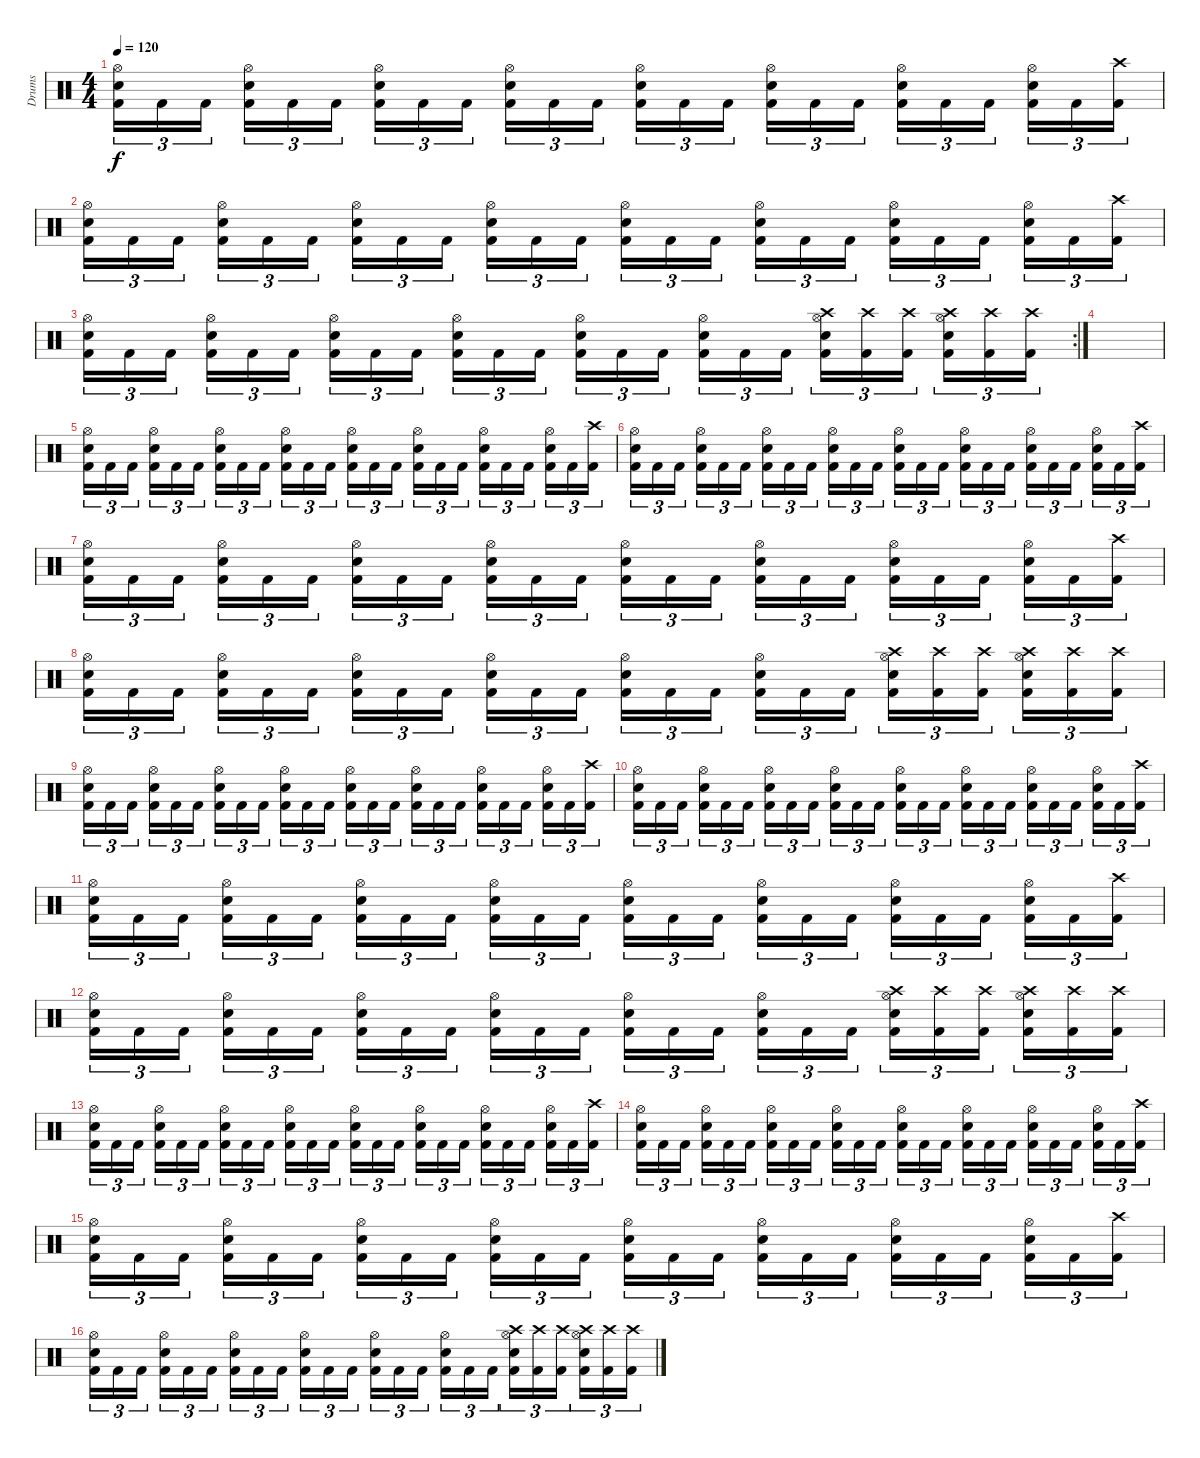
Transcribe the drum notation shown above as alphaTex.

\track ("Drums" "Drums") {instrument percussion}
\staff {score}
\articulation defaults
\ts (4 4)
\tempo 120
\clef neutral
\ks c
("Hi-Hat (open)" "Snare (hit) 2" "Kick (hit) 2").16{tu (3 2) dy f} "Kick (hit) 2".16{tu (3 2)} "Kick (hit) 2".16{tu (3 2)} ("Hi-Hat (open)" "Electric Snare (hit)" "Kick (hit) 2").16{tu (3 2)} "Kick (hit) 2".16{tu (3 2)} "Kick (hit) 2".16{tu (3 2)} ("Hi-Hat (open)" "Snare (hit) 2" "Kick (hit) 2").16{tu (3 2)} "Kick (hit) 2".16{tu (3 2)} "Kick (hit) 2".16{tu (3 2)} ("Hi-Hat (open)" "Electric Snare (hit)" "Kick (hit) 2").16{tu (3 2)} "Kick (hit) 2".16{tu (3 2)} "Kick (hit) 2".16{tu (3 2)} ("Hi-Hat (open)" "Snare (hit) 2" "Kick (hit) 2").16{tu (3 2)} "Kick (hit) 2".16{tu (3 2)} "Kick (hit) 2".16{tu (3 2)} ("Hi-Hat (open)" "Electric Snare (hit)" "Kick (hit) 2").16{tu (3 2)} "Kick (hit) 2".16{tu (3 2)} "Kick (hit) 2".16{tu (3 2)} ("Hi-Hat (open)" "Snare (hit) 2" "Kick (hit) 2").16{tu (3 2)} "Kick (hit) 2".16{tu (3 2)} "Kick (hit) 2".16{tu (3 2)} ("Hi-Hat (open)" "Electric Snare (hit)" "Kick (hit) 2").16{tu (3 2)} "Kick (hit) 2".16{tu (3 2)} ("Crash high (hit)" "Kick (hit) 2").16{tu (3 2)} |
("Hi-Hat (open)" "Snare (hit) 2" "Kick (hit) 2").16{tu (3 2)} "Kick (hit) 2".16{tu (3 2)} "Kick (hit) 2".16{tu (3 2)} ("Hi-Hat (open)" "Electric Snare (hit)" "Kick (hit) 2").16{tu (3 2)} "Kick (hit) 2".16{tu (3 2)} "Kick (hit) 2".16{tu (3 2)} ("Hi-Hat (open)" "Snare (hit) 2" "Kick (hit) 2").16{tu (3 2)} "Kick (hit) 2".16{tu (3 2)} "Kick (hit) 2".16{tu (3 2)} ("Hi-Hat (open)" "Electric Snare (hit)" "Kick (hit) 2").16{tu (3 2)} "Kick (hit) 2".16{tu (3 2)} "Kick (hit) 2".16{tu (3 2)} ("Hi-Hat (open)" "Snare (hit) 2" "Kick (hit) 2").16{tu (3 2)} "Kick (hit) 2".16{tu (3 2)} "Kick (hit) 2".16{tu (3 2)} ("Hi-Hat (open)" "Electric Snare (hit)" "Kick (hit) 2").16{tu (3 2)} "Kick (hit) 2".16{tu (3 2)} "Kick (hit) 2".16{tu (3 2)} ("Hi-Hat (open)" "Snare (hit) 2" "Kick (hit) 2").16{tu (3 2)} "Kick (hit) 2".16{tu (3 2)} "Kick (hit) 2".16{tu (3 2)} ("Hi-Hat (open)" "Electric Snare (hit)" "Kick (hit) 2").16{tu (3 2)} "Kick (hit) 2".16{tu (3 2)} ("Crash high (hit)" "Kick (hit) 2").16{tu (3 2)} |
\rc 2
("Hi-Hat (open)" "Snare (hit) 2" "Kick (hit) 2").16{tu (3 2)} "Kick (hit) 2".16{tu (3 2)} "Kick (hit) 2".16{tu (3 2)} ("Hi-Hat (open)" "Electric Snare (hit)" "Kick (hit) 2").16{tu (3 2)} "Kick (hit) 2".16{tu (3 2)} "Kick (hit) 2".16{tu (3 2)} ("Hi-Hat (open)" "Snare (hit) 2" "Kick (hit) 2").16{tu (3 2)} "Kick (hit) 2".16{tu (3 2)} "Kick (hit) 2".16{tu (3 2)} ("Hi-Hat (open)" "Electric Snare (hit)" "Kick (hit) 2").16{tu (3 2)} "Kick (hit) 2".16{tu (3 2)} "Kick (hit) 2".16{tu (3 2)} ("Hi-Hat (open)" "Snare (hit) 2" "Kick (hit) 2").16{tu (3 2)} "Kick (hit) 2".16{tu (3 2)} "Kick (hit) 2".16{tu (3 2)} ("Hi-Hat (open)" "Electric Snare (hit)" "Kick (hit) 2").16{tu (3 2)} "Kick (hit) 2".16{tu (3 2)} "Kick (hit) 2".16{tu (3 2)} ("Hi-Hat (open)" "Crash high (hit)" "Snare (hit) 2" "Kick (hit) 2").16{tu (3 2)} ("Crash high (hit)" "Kick (hit) 2").16{tu (3 2)} ("Crash high (hit)" "Kick (hit) 2").16{tu (3 2)} ("Hi-Hat (open)" "Crash high (hit)" "Electric Snare (hit)" "Kick (hit) 2").16{tu (3 2)} ("Crash high (hit)" "Kick (hit) 2").16{tu (3 2)} ("Crash high (hit)" "Kick (hit) 2").16{tu (3 2)} |
|
("Hi-Hat (open)" "Snare (hit) 2" "Kick (hit) 2").16{tu (3 2)} "Kick (hit) 2".16{tu (3 2)} "Kick (hit) 2".16{tu (3 2)} ("Hi-Hat (open)" "Electric Snare (hit)" "Kick (hit) 2").16{tu (3 2)} "Kick (hit) 2".16{tu (3 2)} "Kick (hit) 2".16{tu (3 2)} ("Hi-Hat (open)" "Snare (hit) 2" "Kick (hit) 2").16{tu (3 2)} "Kick (hit) 2".16{tu (3 2)} "Kick (hit) 2".16{tu (3 2)} ("Hi-Hat (open)" "Electric Snare (hit)" "Kick (hit) 2").16{tu (3 2)} "Kick (hit) 2".16{tu (3 2)} "Kick (hit) 2".16{tu (3 2)} ("Hi-Hat (open)" "Snare (hit) 2" "Kick (hit) 2").16{tu (3 2)} "Kick (hit) 2".16{tu (3 2)} "Kick (hit) 2".16{tu (3 2)} ("Hi-Hat (open)" "Electric Snare (hit)" "Kick (hit) 2").16{tu (3 2)} "Kick (hit) 2".16{tu (3 2)} "Kick (hit) 2".16{tu (3 2)} ("Hi-Hat (open)" "Snare (hit) 2" "Kick (hit) 2").16{tu (3 2)} "Kick (hit) 2".16{tu (3 2)} "Kick (hit) 2".16{tu (3 2)} ("Hi-Hat (open)" "Electric Snare (hit)" "Kick (hit) 2").16{tu (3 2)} "Kick (hit) 2".16{tu (3 2)} ("Crash high (hit)" "Kick (hit) 2").16{tu (3 2)} |
("Hi-Hat (open)" "Snare (hit) 2" "Kick (hit) 2").16{tu (3 2)} "Kick (hit) 2".16{tu (3 2)} "Kick (hit) 2".16{tu (3 2)} ("Hi-Hat (open)" "Electric Snare (hit)" "Kick (hit) 2").16{tu (3 2)} "Kick (hit) 2".16{tu (3 2)} "Kick (hit) 2".16{tu (3 2)} ("Hi-Hat (open)" "Snare (hit) 2" "Kick (hit) 2").16{tu (3 2)} "Kick (hit) 2".16{tu (3 2)} "Kick (hit) 2".16{tu (3 2)} ("Hi-Hat (open)" "Electric Snare (hit)" "Kick (hit) 2").16{tu (3 2)} "Kick (hit) 2".16{tu (3 2)} "Kick (hit) 2".16{tu (3 2)} ("Hi-Hat (open)" "Snare (hit) 2" "Kick (hit) 2").16{tu (3 2)} "Kick (hit) 2".16{tu (3 2)} "Kick (hit) 2".16{tu (3 2)} ("Hi-Hat (open)" "Electric Snare (hit)" "Kick (hit) 2").16{tu (3 2)} "Kick (hit) 2".16{tu (3 2)} "Kick (hit) 2".16{tu (3 2)} ("Hi-Hat (open)" "Snare (hit) 2" "Kick (hit) 2").16{tu (3 2)} "Kick (hit) 2".16{tu (3 2)} "Kick (hit) 2".16{tu (3 2)} ("Hi-Hat (open)" "Electric Snare (hit)" "Kick (hit) 2").16{tu (3 2)} "Kick (hit) 2".16{tu (3 2)} ("Crash high (hit)" "Kick (hit) 2").16{tu (3 2)} |
("Hi-Hat (open)" "Snare (hit) 2" "Kick (hit) 2").16{tu (3 2)} "Kick (hit) 2".16{tu (3 2)} "Kick (hit) 2".16{tu (3 2)} ("Hi-Hat (open)" "Electric Snare (hit)" "Kick (hit) 2").16{tu (3 2)} "Kick (hit) 2".16{tu (3 2)} "Kick (hit) 2".16{tu (3 2)} ("Hi-Hat (open)" "Snare (hit) 2" "Kick (hit) 2").16{tu (3 2)} "Kick (hit) 2".16{tu (3 2)} "Kick (hit) 2".16{tu (3 2)} ("Hi-Hat (open)" "Electric Snare (hit)" "Kick (hit) 2").16{tu (3 2)} "Kick (hit) 2".16{tu (3 2)} "Kick (hit) 2".16{tu (3 2)} ("Hi-Hat (open)" "Snare (hit) 2" "Kick (hit) 2").16{tu (3 2)} "Kick (hit) 2".16{tu (3 2)} "Kick (hit) 2".16{tu (3 2)} ("Hi-Hat (open)" "Electric Snare (hit)" "Kick (hit) 2").16{tu (3 2)} "Kick (hit) 2".16{tu (3 2)} "Kick (hit) 2".16{tu (3 2)} ("Hi-Hat (open)" "Snare (hit) 2" "Kick (hit) 2").16{tu (3 2)} "Kick (hit) 2".16{tu (3 2)} "Kick (hit) 2".16{tu (3 2)} ("Hi-Hat (open)" "Electric Snare (hit)" "Kick (hit) 2").16{tu (3 2)} "Kick (hit) 2".16{tu (3 2)} ("Crash high (hit)" "Kick (hit) 2").16{tu (3 2)} |
("Hi-Hat (open)" "Snare (hit) 2" "Kick (hit) 2").16{tu (3 2)} "Kick (hit) 2".16{tu (3 2)} "Kick (hit) 2".16{tu (3 2)} ("Hi-Hat (open)" "Electric Snare (hit)" "Kick (hit) 2").16{tu (3 2)} "Kick (hit) 2".16{tu (3 2)} "Kick (hit) 2".16{tu (3 2)} ("Hi-Hat (open)" "Snare (hit) 2" "Kick (hit) 2").16{tu (3 2)} "Kick (hit) 2".16{tu (3 2)} "Kick (hit) 2".16{tu (3 2)} ("Hi-Hat (open)" "Electric Snare (hit)" "Kick (hit) 2").16{tu (3 2)} "Kick (hit) 2".16{tu (3 2)} "Kick (hit) 2".16{tu (3 2)} ("Hi-Hat (open)" "Snare (hit) 2" "Kick (hit) 2").16{tu (3 2)} "Kick (hit) 2".16{tu (3 2)} "Kick (hit) 2".16{tu (3 2)} ("Hi-Hat (open)" "Electric Snare (hit)" "Kick (hit) 2").16{tu (3 2)} "Kick (hit) 2".16{tu (3 2)} "Kick (hit) 2".16{tu (3 2)} ("Hi-Hat (open)" "Crash high (hit)" "Snare (hit) 2" "Kick (hit) 2").16{tu (3 2)} ("Crash high (hit)" "Kick (hit) 2").16{tu (3 2)} ("Crash high (hit)" "Kick (hit) 2").16{tu (3 2)} ("Hi-Hat (open)" "Crash high (hit)" "Electric Snare (hit)" "Kick (hit) 2").16{tu (3 2)} ("Crash high (hit)" "Kick (hit) 2").16{tu (3 2)} ("Crash high (hit)" "Kick (hit) 2").16{tu (3 2)} |
("Hi-Hat (open)" "Snare (hit) 2" "Kick (hit) 2").16{tu (3 2)} "Kick (hit) 2".16{tu (3 2)} "Kick (hit) 2".16{tu (3 2)} ("Hi-Hat (open)" "Electric Snare (hit)" "Kick (hit) 2").16{tu (3 2)} "Kick (hit) 2".16{tu (3 2)} "Kick (hit) 2".16{tu (3 2)} ("Hi-Hat (open)" "Snare (hit) 2" "Kick (hit) 2").16{tu (3 2)} "Kick (hit) 2".16{tu (3 2)} "Kick (hit) 2".16{tu (3 2)} ("Hi-Hat (open)" "Electric Snare (hit)" "Kick (hit) 2").16{tu (3 2)} "Kick (hit) 2".16{tu (3 2)} "Kick (hit) 2".16{tu (3 2)} ("Hi-Hat (open)" "Snare (hit) 2" "Kick (hit) 2").16{tu (3 2)} "Kick (hit) 2".16{tu (3 2)} "Kick (hit) 2".16{tu (3 2)} ("Hi-Hat (open)" "Electric Snare (hit)" "Kick (hit) 2").16{tu (3 2)} "Kick (hit) 2".16{tu (3 2)} "Kick (hit) 2".16{tu (3 2)} ("Hi-Hat (open)" "Snare (hit) 2" "Kick (hit) 2").16{tu (3 2)} "Kick (hit) 2".16{tu (3 2)} "Kick (hit) 2".16{tu (3 2)} ("Hi-Hat (open)" "Electric Snare (hit)" "Kick (hit) 2").16{tu (3 2)} "Kick (hit) 2".16{tu (3 2)} ("Crash high (hit)" "Kick (hit) 2").16{tu (3 2)} |
("Hi-Hat (open)" "Snare (hit) 2" "Kick (hit) 2").16{tu (3 2)} "Kick (hit) 2".16{tu (3 2)} "Kick (hit) 2".16{tu (3 2)} ("Hi-Hat (open)" "Electric Snare (hit)" "Kick (hit) 2").16{tu (3 2)} "Kick (hit) 2".16{tu (3 2)} "Kick (hit) 2".16{tu (3 2)} ("Hi-Hat (open)" "Snare (hit) 2" "Kick (hit) 2").16{tu (3 2)} "Kick (hit) 2".16{tu (3 2)} "Kick (hit) 2".16{tu (3 2)} ("Hi-Hat (open)" "Electric Snare (hit)" "Kick (hit) 2").16{tu (3 2)} "Kick (hit) 2".16{tu (3 2)} "Kick (hit) 2".16{tu (3 2)} ("Hi-Hat (open)" "Snare (hit) 2" "Kick (hit) 2").16{tu (3 2)} "Kick (hit) 2".16{tu (3 2)} "Kick (hit) 2".16{tu (3 2)} ("Hi-Hat (open)" "Electric Snare (hit)" "Kick (hit) 2").16{tu (3 2)} "Kick (hit) 2".16{tu (3 2)} "Kick (hit) 2".16{tu (3 2)} ("Hi-Hat (open)" "Snare (hit) 2" "Kick (hit) 2").16{tu (3 2)} "Kick (hit) 2".16{tu (3 2)} "Kick (hit) 2".16{tu (3 2)} ("Hi-Hat (open)" "Electric Snare (hit)" "Kick (hit) 2").16{tu (3 2)} "Kick (hit) 2".16{tu (3 2)} ("Crash high (hit)" "Kick (hit) 2").16{tu (3 2)} |
("Hi-Hat (open)" "Snare (hit) 2" "Kick (hit) 2").16{tu (3 2)} "Kick (hit) 2".16{tu (3 2)} "Kick (hit) 2".16{tu (3 2)} ("Hi-Hat (open)" "Electric Snare (hit)" "Kick (hit) 2").16{tu (3 2)} "Kick (hit) 2".16{tu (3 2)} "Kick (hit) 2".16{tu (3 2)} ("Hi-Hat (open)" "Snare (hit) 2" "Kick (hit) 2").16{tu (3 2)} "Kick (hit) 2".16{tu (3 2)} "Kick (hit) 2".16{tu (3 2)} ("Hi-Hat (open)" "Electric Snare (hit)" "Kick (hit) 2").16{tu (3 2)} "Kick (hit) 2".16{tu (3 2)} "Kick (hit) 2".16{tu (3 2)} ("Hi-Hat (open)" "Snare (hit) 2" "Kick (hit) 2").16{tu (3 2)} "Kick (hit) 2".16{tu (3 2)} "Kick (hit) 2".16{tu (3 2)} ("Hi-Hat (open)" "Electric Snare (hit)" "Kick (hit) 2").16{tu (3 2)} "Kick (hit) 2".16{tu (3 2)} "Kick (hit) 2".16{tu (3 2)} ("Hi-Hat (open)" "Snare (hit) 2" "Kick (hit) 2").16{tu (3 2)} "Kick (hit) 2".16{tu (3 2)} "Kick (hit) 2".16{tu (3 2)} ("Hi-Hat (open)" "Electric Snare (hit)" "Kick (hit) 2").16{tu (3 2)} "Kick (hit) 2".16{tu (3 2)} ("Crash high (hit)" "Kick (hit) 2").16{tu (3 2)} |
("Hi-Hat (open)" "Snare (hit) 2" "Kick (hit) 2").16{tu (3 2)} "Kick (hit) 2".16{tu (3 2)} "Kick (hit) 2".16{tu (3 2)} ("Hi-Hat (open)" "Electric Snare (hit)" "Kick (hit) 2").16{tu (3 2)} "Kick (hit) 2".16{tu (3 2)} "Kick (hit) 2".16{tu (3 2)} ("Hi-Hat (open)" "Snare (hit) 2" "Kick (hit) 2").16{tu (3 2)} "Kick (hit) 2".16{tu (3 2)} "Kick (hit) 2".16{tu (3 2)} ("Hi-Hat (open)" "Electric Snare (hit)" "Kick (hit) 2").16{tu (3 2)} "Kick (hit) 2".16{tu (3 2)} "Kick (hit) 2".16{tu (3 2)} ("Hi-Hat (open)" "Snare (hit) 2" "Kick (hit) 2").16{tu (3 2)} "Kick (hit) 2".16{tu (3 2)} "Kick (hit) 2".16{tu (3 2)} ("Hi-Hat (open)" "Electric Snare (hit)" "Kick (hit) 2").16{tu (3 2)} "Kick (hit) 2".16{tu (3 2)} "Kick (hit) 2".16{tu (3 2)} ("Hi-Hat (open)" "Crash high (hit)" "Snare (hit) 2" "Kick (hit) 2").16{tu (3 2)} ("Crash high (hit)" "Kick (hit) 2").16{tu (3 2)} ("Crash high (hit)" "Kick (hit) 2").16{tu (3 2)} ("Hi-Hat (open)" "Crash high (hit)" "Electric Snare (hit)" "Kick (hit) 2").16{tu (3 2)} ("Crash high (hit)" "Kick (hit) 2").16{tu (3 2)} ("Crash high (hit)" "Kick (hit) 2").16{tu (3 2)} |
("Hi-Hat (open)" "Snare (hit) 2" "Kick (hit) 2").16{tu (3 2)} "Kick (hit) 2".16{tu (3 2)} "Kick (hit) 2".16{tu (3 2)} ("Hi-Hat (open)" "Electric Snare (hit)" "Kick (hit) 2").16{tu (3 2)} "Kick (hit) 2".16{tu (3 2)} "Kick (hit) 2".16{tu (3 2)} ("Hi-Hat (open)" "Snare (hit) 2" "Kick (hit) 2").16{tu (3 2)} "Kick (hit) 2".16{tu (3 2)} "Kick (hit) 2".16{tu (3 2)} ("Hi-Hat (open)" "Electric Snare (hit)" "Kick (hit) 2").16{tu (3 2)} "Kick (hit) 2".16{tu (3 2)} "Kick (hit) 2".16{tu (3 2)} ("Hi-Hat (open)" "Snare (hit) 2" "Kick (hit) 2").16{tu (3 2)} "Kick (hit) 2".16{tu (3 2)} "Kick (hit) 2".16{tu (3 2)} ("Hi-Hat (open)" "Electric Snare (hit)" "Kick (hit) 2").16{tu (3 2)} "Kick (hit) 2".16{tu (3 2)} "Kick (hit) 2".16{tu (3 2)} ("Hi-Hat (open)" "Snare (hit) 2" "Kick (hit) 2").16{tu (3 2)} "Kick (hit) 2".16{tu (3 2)} "Kick (hit) 2".16{tu (3 2)} ("Hi-Hat (open)" "Electric Snare (hit)" "Kick (hit) 2").16{tu (3 2)} "Kick (hit) 2".16{tu (3 2)} ("Crash high (hit)" "Kick (hit) 2").16{tu (3 2)} |
("Hi-Hat (open)" "Snare (hit) 2" "Kick (hit) 2").16{tu (3 2)} "Kick (hit) 2".16{tu (3 2)} "Kick (hit) 2".16{tu (3 2)} ("Hi-Hat (open)" "Electric Snare (hit)" "Kick (hit) 2").16{tu (3 2)} "Kick (hit) 2".16{tu (3 2)} "Kick (hit) 2".16{tu (3 2)} ("Hi-Hat (open)" "Snare (hit) 2" "Kick (hit) 2").16{tu (3 2)} "Kick (hit) 2".16{tu (3 2)} "Kick (hit) 2".16{tu (3 2)} ("Hi-Hat (open)" "Electric Snare (hit)" "Kick (hit) 2").16{tu (3 2)} "Kick (hit) 2".16{tu (3 2)} "Kick (hit) 2".16{tu (3 2)} ("Hi-Hat (open)" "Snare (hit) 2" "Kick (hit) 2").16{tu (3 2)} "Kick (hit) 2".16{tu (3 2)} "Kick (hit) 2".16{tu (3 2)} ("Hi-Hat (open)" "Electric Snare (hit)" "Kick (hit) 2").16{tu (3 2)} "Kick (hit) 2".16{tu (3 2)} "Kick (hit) 2".16{tu (3 2)} ("Hi-Hat (open)" "Snare (hit) 2" "Kick (hit) 2").16{tu (3 2)} "Kick (hit) 2".16{tu (3 2)} "Kick (hit) 2".16{tu (3 2)} ("Hi-Hat (open)" "Electric Snare (hit)" "Kick (hit) 2").16{tu (3 2)} "Kick (hit) 2".16{tu (3 2)} ("Crash high (hit)" "Kick (hit) 2").16{tu (3 2)} |
("Hi-Hat (open)" "Snare (hit) 2" "Kick (hit) 2").16{tu (3 2)} "Kick (hit) 2".16{tu (3 2)} "Kick (hit) 2".16{tu (3 2)} ("Hi-Hat (open)" "Electric Snare (hit)" "Kick (hit) 2").16{tu (3 2)} "Kick (hit) 2".16{tu (3 2)} "Kick (hit) 2".16{tu (3 2)} ("Hi-Hat (open)" "Snare (hit) 2" "Kick (hit) 2").16{tu (3 2)} "Kick (hit) 2".16{tu (3 2)} "Kick (hit) 2".16{tu (3 2)} ("Hi-Hat (open)" "Electric Snare (hit)" "Kick (hit) 2").16{tu (3 2)} "Kick (hit) 2".16{tu (3 2)} "Kick (hit) 2".16{tu (3 2)} ("Hi-Hat (open)" "Snare (hit) 2" "Kick (hit) 2").16{tu (3 2)} "Kick (hit) 2".16{tu (3 2)} "Kick (hit) 2".16{tu (3 2)} ("Hi-Hat (open)" "Electric Snare (hit)" "Kick (hit) 2").16{tu (3 2)} "Kick (hit) 2".16{tu (3 2)} "Kick (hit) 2".16{tu (3 2)} ("Hi-Hat (open)" "Snare (hit) 2" "Kick (hit) 2").16{tu (3 2)} "Kick (hit) 2".16{tu (3 2)} "Kick (hit) 2".16{tu (3 2)} ("Hi-Hat (open)" "Electric Snare (hit)" "Kick (hit) 2").16{tu (3 2)} "Kick (hit) 2".16{tu (3 2)} ("Crash high (hit)" "Kick (hit) 2").16{tu (3 2)} |
("Hi-Hat (open)" "Snare (hit) 2" "Kick (hit) 2").16{tu (3 2)} "Kick (hit) 2".16{tu (3 2)} "Kick (hit) 2".16{tu (3 2)} ("Hi-Hat (open)" "Electric Snare (hit)" "Kick (hit) 2").16{tu (3 2)} "Kick (hit) 2".16{tu (3 2)} "Kick (hit) 2".16{tu (3 2)} ("Hi-Hat (open)" "Snare (hit) 2" "Kick (hit) 2").16{tu (3 2)} "Kick (hit) 2".16{tu (3 2)} "Kick (hit) 2".16{tu (3 2)} ("Hi-Hat (open)" "Electric Snare (hit)" "Kick (hit) 2").16{tu (3 2)} "Kick (hit) 2".16{tu (3 2)} "Kick (hit) 2".16{tu (3 2)} ("Hi-Hat (open)" "Snare (hit) 2" "Kick (hit) 2").16{tu (3 2)} "Kick (hit) 2".16{tu (3 2)} "Kick (hit) 2".16{tu (3 2)} ("Hi-Hat (open)" "Electric Snare (hit)" "Kick (hit) 2").16{tu (3 2)} "Kick (hit) 2".16{tu (3 2)} "Kick (hit) 2".16{tu (3 2)} ("Hi-Hat (open)" "Crash high (hit)" "Snare (hit) 2" "Kick (hit) 2").16{tu (3 2)} ("Crash high (hit)" "Kick (hit) 2").16{tu (3 2)} ("Crash high (hit)" "Kick (hit) 2").16{tu (3 2)} ("Hi-Hat (open)" "Crash high (hit)" "Electric Snare (hit)" "Kick (hit) 2").16{tu (3 2)} ("Crash high (hit)" "Kick (hit) 2").16{tu (3 2)} ("Crash high (hit)" "Kick (hit) 2").16{tu (3 2)}
